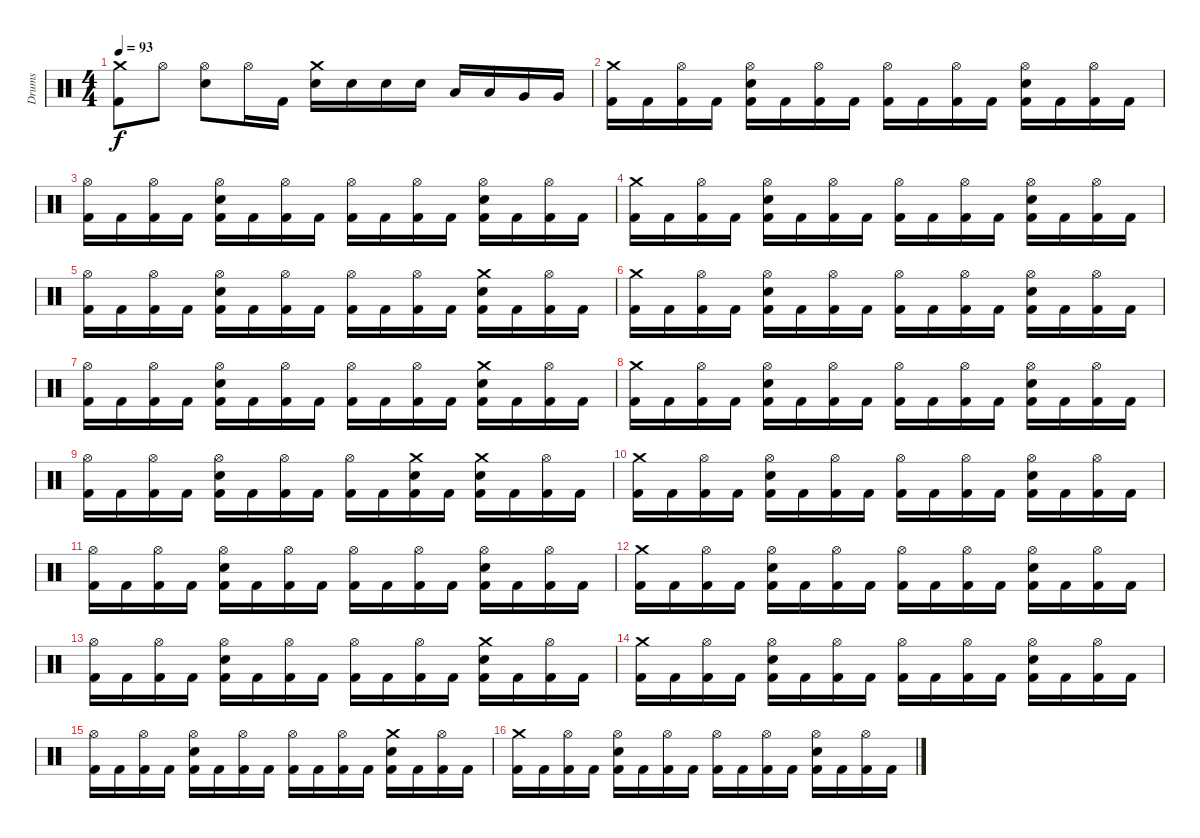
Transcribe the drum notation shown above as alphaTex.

\track ("Drums" "Drums") {instrument percussion}
\staff {score}
\articulation defaults
\ts (4 4)
\tempo 93
\clef neutral
\ks c
("Crash medium (hit)" "Kick (hit) 2").8{dy f} "Hi-Hat (open)".8 ("Hi-Hat (open)" "Electric Snare (hit)").8 "Hi-Hat (open)".16 "Kick (hit) 2".16 ("Crash medium (hit)" "Electric Snare (hit)").16 "Electric Snare (hit)".16 "Electric Snare (hit)".16 "Electric Snare (hit)".16 "Low Tom (hit)".16 "Low Tom (hit)".16 "Very Low Tom (hit)".16 "Very Low Tom (hit)".16 |
("Crash medium (hit)" "Kick (hit) 2").16 "Kick (hit) 2".16 ("Hi-Hat (open)" "Kick (hit) 2").16 "Kick (hit) 2".16 ("Hi-Hat (open)" "Electric Snare (hit)" "Kick (hit) 2").16 "Kick (hit) 2".16 ("Hi-Hat (open)" "Kick (hit) 2").16 "Kick (hit) 2".16 ("Hi-Hat (open)" "Kick (hit) 2").16 "Kick (hit) 2".16 ("Hi-Hat (open)" "Kick (hit) 2").16 "Kick (hit) 2".16 ("Hi-Hat (open)" "Electric Snare (hit)" "Kick (hit) 2").16 "Kick (hit) 2".16 ("Hi-Hat (open)" "Kick (hit) 2").16 "Kick (hit) 2".16 |
("Hi-Hat (open)" "Kick (hit) 2").16 "Kick (hit) 2".16 ("Hi-Hat (open)" "Kick (hit) 2").16 "Kick (hit) 2".16 ("Hi-Hat (open)" "Electric Snare (hit)" "Kick (hit) 2").16 "Kick (hit) 2".16 ("Hi-Hat (open)" "Kick (hit) 2").16 "Kick (hit) 2".16 ("Hi-Hat (open)" "Kick (hit) 2").16 "Kick (hit) 2".16 ("Hi-Hat (open)" "Kick (hit) 2").16 "Kick (hit) 2".16 ("Hi-Hat (open)" "Electric Snare (hit)" "Kick (hit) 2").16 "Kick (hit) 2".16 ("Hi-Hat (open)" "Kick (hit) 2").16 "Kick (hit) 2".16 |
("Crash medium (hit)" "Kick (hit) 2").16 "Kick (hit) 2".16 ("Hi-Hat (open)" "Kick (hit) 2").16 "Kick (hit) 2".16 ("Hi-Hat (open)" "Electric Snare (hit)" "Kick (hit) 2").16 "Kick (hit) 2".16 ("Hi-Hat (open)" "Kick (hit) 2").16 "Kick (hit) 2".16 ("Hi-Hat (open)" "Kick (hit) 2").16 "Kick (hit) 2".16 ("Hi-Hat (open)" "Kick (hit) 2").16 "Kick (hit) 2".16 ("Hi-Hat (open)" "Electric Snare (hit)" "Kick (hit) 2").16 "Kick (hit) 2".16 ("Hi-Hat (open)" "Kick (hit) 2").16 "Kick (hit) 2".16 |
("Hi-Hat (open)" "Kick (hit) 2").16 "Kick (hit) 2".16 ("Hi-Hat (open)" "Kick (hit) 2").16 "Kick (hit) 2".16 ("Hi-Hat (open)" "Electric Snare (hit)" "Kick (hit) 2").16 "Kick (hit) 2".16 ("Hi-Hat (open)" "Kick (hit) 2").16 "Kick (hit) 2".16 ("Hi-Hat (open)" "Kick (hit) 2").16 "Kick (hit) 2".16 ("Hi-Hat (open)" "Kick (hit) 2").16 "Kick (hit) 2".16 ("Crash medium (hit)" "Electric Snare (hit)" "Kick (hit) 2").16 "Kick (hit) 2".16 ("Hi-Hat (open)" "Kick (hit) 2").16 "Kick (hit) 2".16 |
("Crash medium (hit)" "Kick (hit) 2").16 "Kick (hit) 2".16 ("Hi-Hat (open)" "Kick (hit) 2").16 "Kick (hit) 2".16 ("Hi-Hat (open)" "Electric Snare (hit)" "Kick (hit) 2").16 "Kick (hit) 2".16 ("Hi-Hat (open)" "Kick (hit) 2").16 "Kick (hit) 2".16 ("Hi-Hat (open)" "Kick (hit) 2").16 "Kick (hit) 2".16 ("Hi-Hat (open)" "Kick (hit) 2").16 "Kick (hit) 2".16 ("Hi-Hat (open)" "Electric Snare (hit)" "Kick (hit) 2").16 "Kick (hit) 2".16 ("Hi-Hat (open)" "Kick (hit) 2").16 "Kick (hit) 2".16 |
("Hi-Hat (open)" "Kick (hit) 2").16 "Kick (hit) 2".16 ("Hi-Hat (open)" "Kick (hit) 2").16 "Kick (hit) 2".16 ("Hi-Hat (open)" "Electric Snare (hit)" "Kick (hit) 2").16 "Kick (hit) 2".16 ("Hi-Hat (open)" "Kick (hit) 2").16 "Kick (hit) 2".16 ("Hi-Hat (open)" "Kick (hit) 2").16 "Kick (hit) 2".16 ("Hi-Hat (open)" "Kick (hit) 2").16 "Kick (hit) 2".16 ("Crash medium (hit)" "Electric Snare (hit)" "Kick (hit) 2").16 "Kick (hit) 2".16 ("Hi-Hat (open)" "Kick (hit) 2").16 "Kick (hit) 2".16 |
("Crash medium (hit)" "Kick (hit) 2").16 "Kick (hit) 2".16 ("Hi-Hat (open)" "Kick (hit) 2").16 "Kick (hit) 2".16 ("Hi-Hat (open)" "Electric Snare (hit)" "Kick (hit) 2").16 "Kick (hit) 2".16 ("Hi-Hat (open)" "Kick (hit) 2").16 "Kick (hit) 2".16 ("Hi-Hat (open)" "Kick (hit) 2").16 "Kick (hit) 2".16 ("Hi-Hat (open)" "Kick (hit) 2").16 "Kick (hit) 2".16 ("Hi-Hat (open)" "Electric Snare (hit)" "Kick (hit) 2").16 "Kick (hit) 2".16 ("Hi-Hat (open)" "Kick (hit) 2").16 "Kick (hit) 2".16 |
("Hi-Hat (open)" "Kick (hit) 2").16 "Kick (hit) 2".16 ("Hi-Hat (open)" "Kick (hit) 2").16 "Kick (hit) 2".16 ("Hi-Hat (open)" "Electric Snare (hit)" "Kick (hit) 2").16 "Kick (hit) 2".16 ("Hi-Hat (open)" "Kick (hit) 2").16 "Kick (hit) 2".16 ("Hi-Hat (open)" "Kick (hit) 2").16 "Kick (hit) 2".16 ("Crash medium (hit)" "Electric Snare (hit)" "Kick (hit) 2").16 "Kick (hit) 2".16 ("Crash medium (hit)" "Electric Snare (hit)" "Kick (hit) 2").16 "Kick (hit) 2".16 ("Hi-Hat (open)" "Kick (hit) 2").16 "Kick (hit) 2".16 |
("Crash medium (hit)" "Kick (hit) 2").16 "Kick (hit) 2".16 ("Hi-Hat (open)" "Kick (hit) 2").16 "Kick (hit) 2".16 ("Hi-Hat (open)" "Electric Snare (hit)" "Kick (hit) 2").16 "Kick (hit) 2".16 ("Hi-Hat (open)" "Kick (hit) 2").16 "Kick (hit) 2".16 ("Hi-Hat (open)" "Kick (hit) 2").16 "Kick (hit) 2".16 ("Hi-Hat (open)" "Kick (hit) 2").16 "Kick (hit) 2".16 ("Hi-Hat (open)" "Electric Snare (hit)" "Kick (hit) 2").16 "Kick (hit) 2".16 ("Hi-Hat (open)" "Kick (hit) 2").16 "Kick (hit) 2".16 |
("Hi-Hat (open)" "Kick (hit) 2").16 "Kick (hit) 2".16 ("Hi-Hat (open)" "Kick (hit) 2").16 "Kick (hit) 2".16 ("Hi-Hat (open)" "Electric Snare (hit)" "Kick (hit) 2").16 "Kick (hit) 2".16 ("Hi-Hat (open)" "Kick (hit) 2").16 "Kick (hit) 2".16 ("Hi-Hat (open)" "Kick (hit) 2").16 "Kick (hit) 2".16 ("Hi-Hat (open)" "Kick (hit) 2").16 "Kick (hit) 2".16 ("Hi-Hat (open)" "Electric Snare (hit)" "Kick (hit) 2").16 "Kick (hit) 2".16 ("Hi-Hat (open)" "Kick (hit) 2").16 "Kick (hit) 2".16 |
("Crash medium (hit)" "Kick (hit) 2").16 "Kick (hit) 2".16 ("Hi-Hat (open)" "Kick (hit) 2").16 "Kick (hit) 2".16 ("Hi-Hat (open)" "Electric Snare (hit)" "Kick (hit) 2").16 "Kick (hit) 2".16 ("Hi-Hat (open)" "Kick (hit) 2").16 "Kick (hit) 2".16 ("Hi-Hat (open)" "Kick (hit) 2").16 "Kick (hit) 2".16 ("Hi-Hat (open)" "Kick (hit) 2").16 "Kick (hit) 2".16 ("Hi-Hat (open)" "Electric Snare (hit)" "Kick (hit) 2").16 "Kick (hit) 2".16 ("Hi-Hat (open)" "Kick (hit) 2").16 "Kick (hit) 2".16 |
("Hi-Hat (open)" "Kick (hit) 2").16 "Kick (hit) 2".16 ("Hi-Hat (open)" "Kick (hit) 2").16 "Kick (hit) 2".16 ("Hi-Hat (open)" "Electric Snare (hit)" "Kick (hit) 2").16 "Kick (hit) 2".16 ("Hi-Hat (open)" "Kick (hit) 2").16 "Kick (hit) 2".16 ("Hi-Hat (open)" "Kick (hit) 2").16 "Kick (hit) 2".16 ("Hi-Hat (open)" "Kick (hit) 2").16 "Kick (hit) 2".16 ("Crash medium (hit)" "Electric Snare (hit)" "Kick (hit) 2").16 "Kick (hit) 2".16 ("Hi-Hat (open)" "Kick (hit) 2").16 "Kick (hit) 2".16 |
("Crash medium (hit)" "Kick (hit) 2").16 "Kick (hit) 2".16 ("Hi-Hat (open)" "Kick (hit) 2").16 "Kick (hit) 2".16 ("Hi-Hat (open)" "Electric Snare (hit)" "Kick (hit) 2").16 "Kick (hit) 2".16 ("Hi-Hat (open)" "Kick (hit) 2").16 "Kick (hit) 2".16 ("Hi-Hat (open)" "Kick (hit) 2").16 "Kick (hit) 2".16 ("Hi-Hat (open)" "Kick (hit) 2").16 "Kick (hit) 2".16 ("Hi-Hat (open)" "Electric Snare (hit)" "Kick (hit) 2").16 "Kick (hit) 2".16 ("Hi-Hat (open)" "Kick (hit) 2").16 "Kick (hit) 2".16 |
("Hi-Hat (open)" "Kick (hit) 2").16 "Kick (hit) 2".16 ("Hi-Hat (open)" "Kick (hit) 2").16 "Kick (hit) 2".16 ("Hi-Hat (open)" "Electric Snare (hit)" "Kick (hit) 2").16 "Kick (hit) 2".16 ("Hi-Hat (open)" "Kick (hit) 2").16 "Kick (hit) 2".16 ("Hi-Hat (open)" "Kick (hit) 2").16 "Kick (hit) 2".16 ("Hi-Hat (open)" "Kick (hit) 2").16 "Kick (hit) 2".16 ("Crash medium (hit)" "Electric Snare (hit)" "Kick (hit) 2").16 "Kick (hit) 2".16 ("Hi-Hat (open)" "Kick (hit) 2").16 "Kick (hit) 2".16 |
("Crash medium (hit)" "Kick (hit) 2").16 "Kick (hit) 2".16 ("Hi-Hat (open)" "Kick (hit) 2").16 "Kick (hit) 2".16 ("Hi-Hat (open)" "Electric Snare (hit)" "Kick (hit) 2").16 "Kick (hit) 2".16 ("Hi-Hat (open)" "Kick (hit) 2").16 "Kick (hit) 2".16 ("Hi-Hat (open)" "Kick (hit) 2").16 "Kick (hit) 2".16 ("Hi-Hat (open)" "Kick (hit) 2").16 "Kick (hit) 2".16 ("Hi-Hat (open)" "Electric Snare (hit)" "Kick (hit) 2").16 "Kick (hit) 2".16 ("Hi-Hat (open)" "Kick (hit) 2").16 "Kick (hit) 2".16
